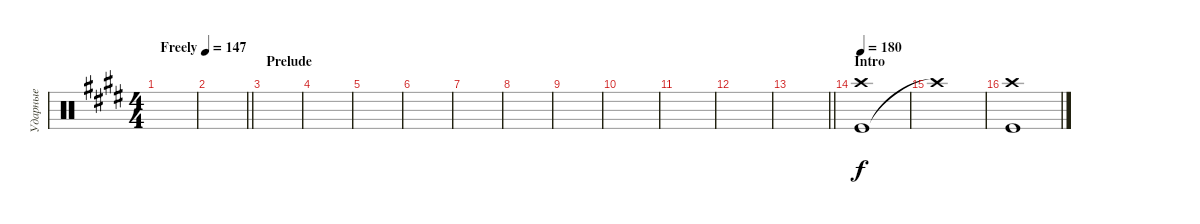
\track ("Ударные" "Ударные") {instrument percussion}
\staff {score}
\articulation defaults
\ts (4 4)
\tempo (147 "Freely")
\clef neutral
\ks c#minor
|
\barLineRight lightlight
|
\section ("" "Prelude")
|
|
|
|
|
|
|
|
|
|
\barLineRight lightlight
|
\section ("" "Intro")
\tempo 180
("Kick (hit)" "Crash high (hit)").1 |
"Crash high (hit)"{t}.1 |
("Kick (hit)" "Crash high (hit)").1
